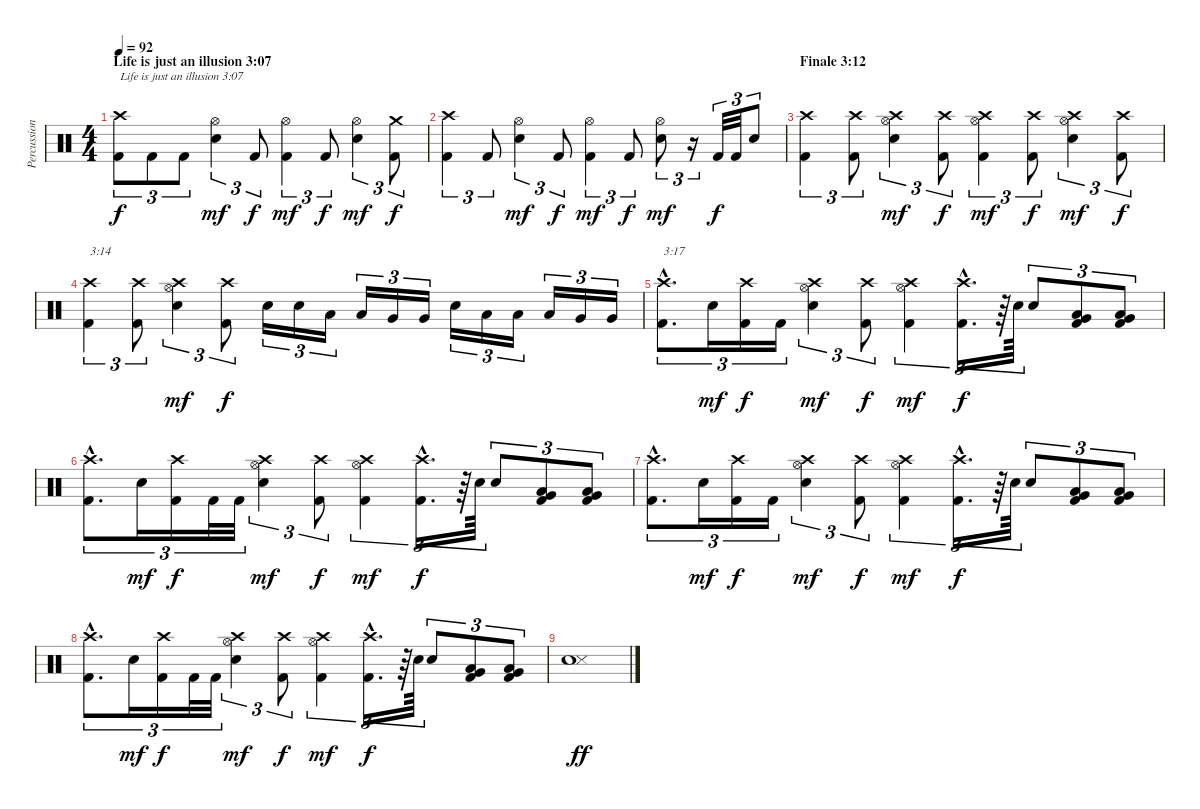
\track ("Percussion" "Percussion") {instrument percussion}
\staff {score}
\articulation defaults
\ts (4 4)
\section ("" "Life is just an illusion 3:07")
\tempo 92
\clef neutral
\ks c
("Kick (hit) 2" "Crash high (hit)").8{tu (3 2) txt "Life is just an illusion 3:07" dy f} "Kick (hit) 2".8{tu (3 2)} "Kick (hit) 2".8{tu (3 2)} ("Electric Snare (hit)" "Hi-Hat (open)").4{tu (3 2) dy mf} "Kick (hit) 2".8{tu (3 2) dy f} ("Kick (hit) 2" "Hi-Hat (open)").4{tu (3 2) dy mf} "Kick (hit) 2".8{tu (3 2) dy f} ("Electric Snare (hit)" "Hi-Hat (open)").4{tu (3 2) dy mf} ("Kick (hit) 2" "Crash medium (hit)").8{tu (3 2) dy f} |
("Kick (hit) 2" "Crash high (hit)").4{tu (3 2)} "Kick (hit) 2".8{tu (3 2)} ("Electric Snare (hit)" "Hi-Hat (open)").4{tu (3 2) dy mf} "Kick (hit) 2".8{tu (3 2) dy f} ("Kick (hit) 2" "Hi-Hat (open)").4{tu (3 2) dy mf} "Kick (hit) 2".8{tu (3 2) dy f} ("Electric Snare (hit)" "Hi-Hat (open)").8{tu (3 2) dy mf} r.16{tu (3 2)} "Kick (hit) 2".32{tu (3 2) dy f} "Kick (hit) 2".32{tu (3 2)} "Electric Snare (hit)".8{tu (3 2)} |
\section ("" "Finale 3:12")
("Kick (hit) 2" "Crash high (hit)").4{tu (3 2)} ("Kick (hit) 2" "Crash high (hit)").8{tu (3 2)} ("Electric Snare (hit)" "Hi-Hat (open)" "Crash high (hit)").4{tu (3 2) dy mf} ("Kick (hit) 2" "Crash high (hit)").8{tu (3 2) dy f} ("Kick (hit) 2" "Hi-Hat (open)" "Crash high (hit)").4{tu (3 2) dy mf} ("Kick (hit) 2" "Crash high (hit)").8{tu (3 2) dy f} ("Electric Snare (hit)" "Hi-Hat (open)" "Crash high (hit)").4{tu (3 2) dy mf} ("Kick (hit) 2" "Crash high (hit)").8{tu (3 2) dy f} |
("Kick (hit) 2" "Crash high (hit)").4{tu (3 2) txt "3:14"} ("Kick (hit) 2" "Crash high (hit)").8{tu (3 2)} ("Electric Snare (hit)" "Hi-Hat (open)" "Crash high (hit)").4{tu (3 2) dy mf} ("Kick (hit) 2" "Crash high (hit)").8{tu (3 2) dy f} "Electric Snare (hit)".16{tu (3 2)} "Electric Snare (hit)".16{tu (3 2)} "Low Tom (hit)".16{tu (3 2)} "Low Tom (hit)".16{tu (3 2)} "Very Low Tom (hit)".16{tu (3 2)} "Very Low Tom (hit)".16{tu (3 2)} "Electric Snare (hit)".16{tu (3 2)} "Low Tom (hit)".16{tu (3 2)} "Low Tom (hit)".16{tu (3 2)} "Low Tom (hit)".16{tu (3 2)} "Very Low Tom (hit)".16{tu (3 2)} "Very Low Tom (hit)".16{tu (3 2)} |
("Kick (hit) 2"{hac} "Crash high (hit)"{hac}).8{d tu (3 2) txt "3:17"} "Electric Snare (hit)".16{tu (3 2) dy mf} ("Kick (hit) 2" "Crash high (hit)").16{tu (3 2) dy f} "Kick (hit) 2".16{tu (3 2)} ("Electric Snare (hit)" "Hi-Hat (open)" "Crash high (hit)").4{tu (3 2) dy mf} ("Kick (hit) 2" "Crash high (hit)").8{tu (3 2) dy f} ("Kick (hit) 2" "Hi-Hat (open)" "Crash high (hit)").4{tu (3 2) dy mf} ("Kick (hit) 2"{hac} "Crash high (hit)"{hac}).16{d tu (3 2) dy f} r.64{tu (3 2)} "Electric Snare (hit)".64{tu (3 2)} "Electric Snare (hit)".8{tu (3 2)} ("Kick (hit) 2" "Low Tom (hit)" "Very Low Tom (hit)").8{tu (3 2)} ("Kick (hit) 2" "Low Tom (hit)" "Very Low Tom (hit)").8{tu (3 2)} |
("Kick (hit) 2"{hac} "Crash high (hit)"{hac}).8{d tu (3 2)} "Electric Snare (hit)".16{tu (3 2) dy mf} ("Kick (hit) 2" "Crash high (hit)").16{tu (3 2) dy f} "Kick (hit) 2".32{tu (3 2)} "Kick (hit) 2".32{tu (3 2)} ("Electric Snare (hit)" "Hi-Hat (open)" "Crash high (hit)").4{tu (3 2) dy mf} ("Kick (hit) 2" "Crash high (hit)").8{tu (3 2) dy f} ("Kick (hit) 2" "Hi-Hat (open)" "Crash high (hit)").4{tu (3 2) dy mf} ("Kick (hit) 2"{hac} "Crash high (hit)"{hac}).16{d tu (3 2) dy f} r.64{tu (3 2)} "Electric Snare (hit)".64{tu (3 2)} "Electric Snare (hit)".8{tu (3 2)} ("Kick (hit) 2" "Low Tom (hit)" "Very Low Tom (hit)").8{tu (3 2)} ("Kick (hit) 2" "Low Tom (hit)" "Very Low Tom (hit)").8{tu (3 2)} |
("Kick (hit) 2"{hac} "Crash high (hit)"{hac}).8{d tu (3 2)} "Electric Snare (hit)".16{tu (3 2) dy mf} ("Kick (hit) 2" "Crash high (hit)").16{tu (3 2) dy f} "Kick (hit) 2".16{tu (3 2)} ("Electric Snare (hit)" "Hi-Hat (open)" "Crash high (hit)").4{tu (3 2) dy mf} ("Kick (hit) 2" "Crash high (hit)").8{tu (3 2) dy f} ("Kick (hit) 2" "Hi-Hat (open)" "Crash high (hit)").4{tu (3 2) dy mf} ("Kick (hit) 2"{hac} "Crash high (hit)"{hac}).16{d tu (3 2) dy f} r.64{tu (3 2)} "Electric Snare (hit)".64{tu (3 2)} "Electric Snare (hit)".8{tu (3 2)} ("Kick (hit) 2" "Low Tom (hit)" "Very Low Tom (hit)").8{tu (3 2)} ("Kick (hit) 2" "Low Tom (hit)" "Very Low Tom (hit)").8{tu (3 2)} |
("Kick (hit) 2"{hac} "Crash high (hit)"{hac}).8{d tu (3 2)} "Electric Snare (hit)".16{tu (3 2) dy mf} ("Kick (hit) 2" "Crash high (hit)").16{tu (3 2) dy f} "Kick (hit) 2".32{tu (3 2)} "Kick (hit) 2".32{tu (3 2)} ("Electric Snare (hit)" "Hi-Hat (open)" "Crash high (hit)").4{tu (3 2) dy mf} ("Kick (hit) 2" "Crash high (hit)").8{tu (3 2) dy f} ("Kick (hit) 2" "Hi-Hat (open)" "Crash high (hit)").4{tu (3 2) dy mf} ("Kick (hit) 2"{hac} "Crash high (hit)"{hac}).16{d tu (3 2) dy f} r.64{tu (3 2)} "Electric Snare (hit)".64{tu (3 2)} "Electric Snare (hit)".8{tu (3 2)} ("Kick (hit) 2" "Low Tom (hit)" "Very Low Tom (hit)").8{tu (3 2)} ("Kick (hit) 2" "Low Tom (hit)" "Very Low Tom (hit)").8{tu (3 2)} |
("Snare (side stick) 3" "Electric Snare (hit)").1{dy ff}
